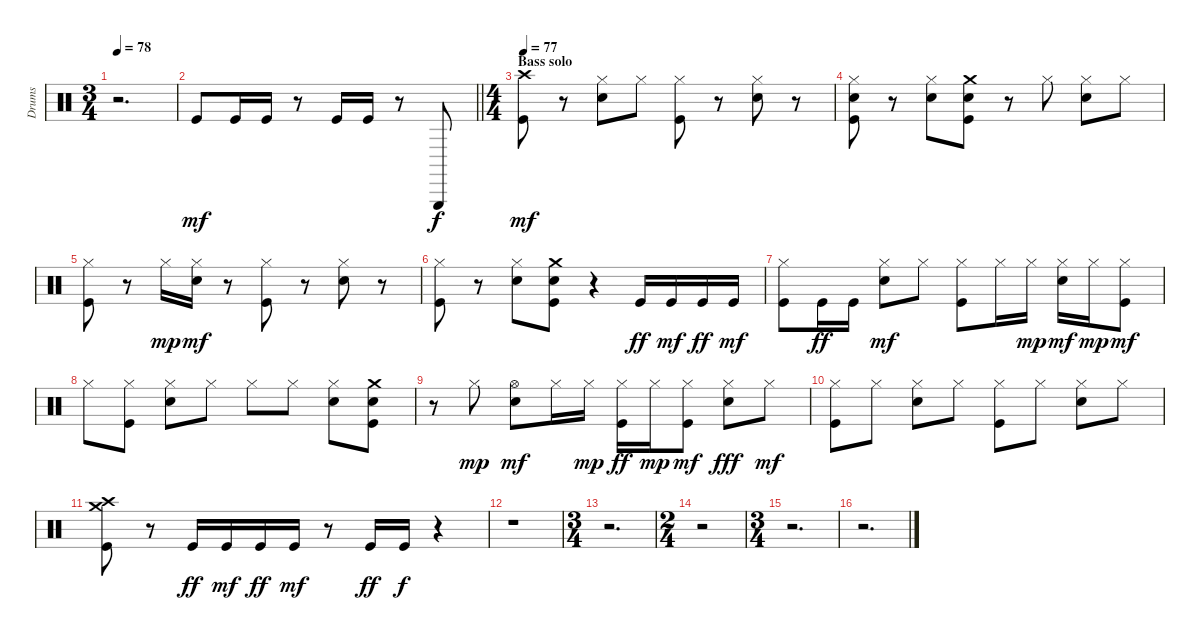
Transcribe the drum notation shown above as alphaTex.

\track ("Drums" "Drums") {instrument percussion}
\staff {score}
\articulation defaults
\ts (3 4)
\tempo 78
\clef neutral
\ks c
r.2{d dy f} |
\barLineRight lightlight "Kick (hit)".8{dy mf} "Kick (hit)".16 "Kick (hit)".16
r.8 "Kick (hit)".16 "Kick (hit)".16 r.8 "Triangle (hit)".8{dy f} |
\ts (4 4)
\section ("" "Bass solo")
\tempo 77
("Kick (hit)" "Crash high (hit)").8{dy mf} r.8 ("Electric Snare (hit)" "Hi-Hat (closed)").8 "Hi-Hat (closed)".8 ("Kick (hit)" "Hi-Hat (closed)").8 r.8 ("Electric Snare (hit)" "Hi-Hat (closed)").8 r.8 |
("Kick (hit)" "Electric Snare (hit)" "Hi-Hat (closed)").8 r.8 ("Electric Snare (hit)" "Hi-Hat (closed)").8 ("Kick (hit)" "Electric Snare (hit)" "Crash medium (hit)").8 r.8 "Hi-Hat (closed)".8 ("Electric Snare (hit)" "Hi-Hat (closed)").8 "Hi-Hat (closed)".8 |
("Kick (hit)" "Hi-Hat (closed)").8 r.8 "Hi-Hat (closed)".16{dy mp} ("Electric Snare (hit)" "Hi-Hat (closed)").16{dy mf} r.8 ("Kick (hit)" "Hi-Hat (closed)").8 r.8 ("Electric Snare (hit)" "Hi-Hat (closed)").8 r.8 |
("Kick (hit)" "Hi-Hat (closed)").8 r.8 ("Electric Snare (hit)" "Hi-Hat (closed)").8 ("Kick (hit)" "Electric Snare (hit)" "Crash medium (hit)").8 r.4 "Kick (hit)".16{dy ff} "Kick (hit)".16{dy mf} "Kick (hit)".16{dy ff} "Kick (hit)".16{dy mf} |
("Kick (hit)" "Hi-Hat (closed)").8 "Kick (hit)".16{dy ff} "Kick (hit)".16 ("Electric Snare (hit)" "Hi-Hat (closed)").8{dy mf} "Hi-Hat (closed)".8 ("Kick (hit)" "Hi-Hat (closed)").8 "Hi-Hat (closed)".16 "Hi-Hat (closed)".16{dy mp} ("Electric Snare (hit)" "Hi-Hat (closed)").16{dy mf} "Hi-Hat (closed)".16{dy mp} ("Kick (hit)" "Hi-Hat (closed)").8{dy mf} |
"Hi-Hat (closed)".8 ("Kick (hit)" "Hi-Hat (closed)").8 ("Electric Snare (hit)" "Hi-Hat (closed)").8 "Hi-Hat (closed)".8 "Hi-Hat (closed)".8 "Hi-Hat (closed)".8 ("Electric Snare (hit)" "Hi-Hat (closed)").8 ("Kick (hit)" "Electric Snare (hit)" "Crash medium (hit)").8 |
r.8 "Hi-Hat (closed)".8{dy mp} ("Electric Snare (hit)" "Hi-Hat (open)").8{dy mf} "Hi-Hat (closed)".16 "Hi-Hat (closed)".16{dy mp} ("Kick (hit)" "Hi-Hat (closed)").16{dy ff} "Hi-Hat (closed)".16{dy mp} ("Kick (hit)" "Hi-Hat (closed)").8{dy mf} ("Electric Snare (hit)" "Hi-Hat (closed)").8{dy fff} "Hi-Hat (closed)".8{dy mf} |
("Kick (hit)" "Hi-Hat (closed)").8 "Hi-Hat (closed)".8 ("Electric Snare (hit)" "Hi-Hat (closed)").8 "Hi-Hat (closed)".8 ("Kick (hit)" "Hi-Hat (closed)").8 "Hi-Hat (closed)".8 ("Electric Snare (hit)" "Hi-Hat (closed)").8 "Hi-Hat (closed)".8 |
("Kick (hit)" "Crash high (hit)" "Crash medium (hit)").8 r.8 "Kick (hit)".16{dy ff} "Kick (hit)".16{dy mf} "Kick (hit)".16{dy ff} "Kick (hit)".16{dy mf} r.8 "Kick (hit)".16{dy ff} "Kick (hit)".16{dy f} r.4 |
r.1 |
\ts (3 4)
r.2{d} |
\ts (2 4)
r.2 |
\ts (3 4)
r.2{d} |
r.2{d}
